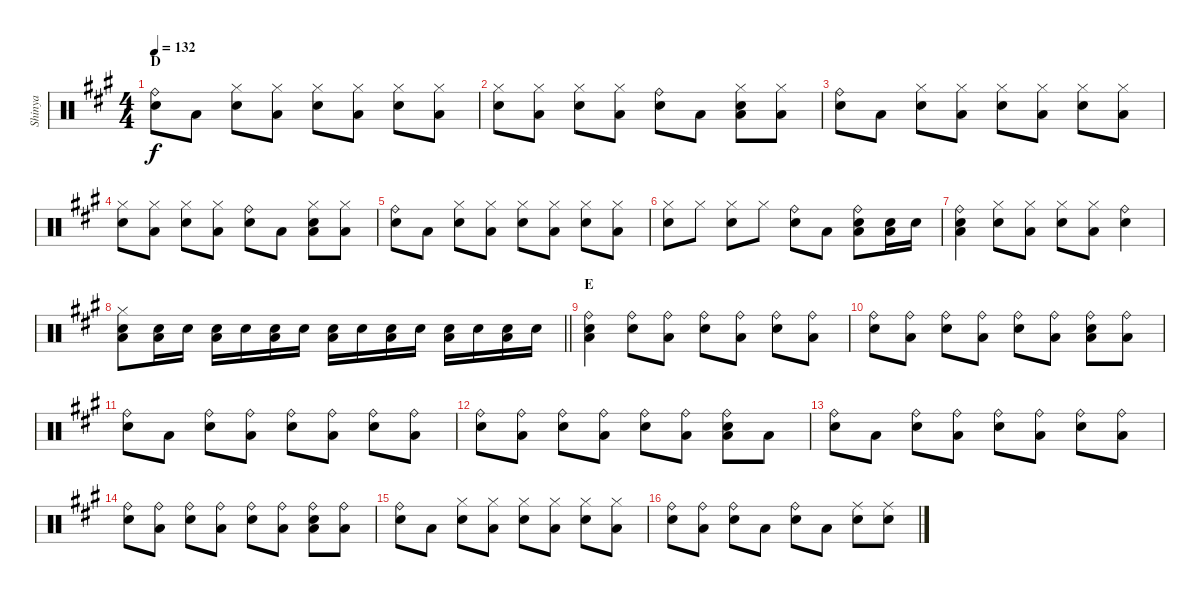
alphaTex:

\track ("Shinya" "Shinya") {instrument percussion}
\staff {score}
\articulation defaults
\ts (4 4)
\section ("" "D")
\tempo 132
\clef neutral
\ks a
("Ride (bell)" "Snare (hit) 2").8{dy f} "Low Floor Tom (hit)".8 ("Hi-Hat (closed)" "Snare (hit) 2").8 ("Low Floor Tom (hit)" "Hi-Hat (closed)").8 ("Hi-Hat (closed)" "Snare (hit) 2").8 ("Low Floor Tom (hit)" "Hi-Hat (closed)").8 ("Hi-Hat (closed)" "Snare (hit) 2").8 ("Low Floor Tom (hit)" "Hi-Hat (closed)").8 |
("Hi-Hat (closed)" "Snare (hit) 2").8 ("Low Floor Tom (hit)" "Hi-Hat (closed)").8 ("Hi-Hat (closed)" "Snare (hit) 2").8 ("Low Floor Tom (hit)" "Hi-Hat (closed)").8 ("Ride (bell)" "Snare (hit) 2").8 "Low Floor Tom (hit)".8 ("Low Floor Tom (hit)" "Hi-Hat (closed)" "Snare (hit) 2").8 ("Low Floor Tom (hit)" "Hi-Hat (closed)").8 |
("Ride (bell)" "Snare (hit) 2").8 "Low Floor Tom (hit)".8 ("Hi-Hat (closed)" "Snare (hit) 2").8 ("Low Floor Tom (hit)" "Hi-Hat (closed)").8 ("Hi-Hat (closed)" "Snare (hit) 2").8 ("Low Floor Tom (hit)" "Hi-Hat (closed)").8 ("Hi-Hat (closed)" "Snare (hit) 2").8 ("Low Floor Tom (hit)" "Hi-Hat (closed)").8 |
("Hi-Hat (closed)" "Snare (hit) 2").8 ("Low Floor Tom (hit)" "Hi-Hat (closed)").8 ("Hi-Hat (closed)" "Snare (hit) 2").8 ("Low Floor Tom (hit)" "Hi-Hat (closed)").8 ("Ride (bell)" "Snare (hit) 2").8 "Low Floor Tom (hit)".8 ("Low Floor Tom (hit)" "Hi-Hat (closed)" "Snare (hit) 2").8 ("Low Floor Tom (hit)" "Hi-Hat (closed)").8 |
("Ride (bell)" "Snare (hit) 2").8 "Low Floor Tom (hit)".8 ("Hi-Hat (closed)" "Snare (hit) 2").8 ("Low Floor Tom (hit)" "Hi-Hat (closed)").8 ("Hi-Hat (closed)" "Snare (hit) 2").8 ("Low Floor Tom (hit)" "Hi-Hat (closed)").8 ("Hi-Hat (closed)" "Snare (hit) 2").8 ("Low Floor Tom (hit)" "Hi-Hat (closed)").8 |
("Hi-Hat (closed)" "Snare (hit) 2").8 "Hi-Hat (closed)".8 ("Hi-Hat (closed)" "Snare (hit) 2").8 "Hi-Hat (closed)".8 ("Ride (bell)" "Snare (hit) 2").8 "Low Floor Tom (hit)".8 ("Low Floor Tom (hit)" "Ride (bell)" "Snare (hit) 2").8 ("Low Floor Tom (hit)" "Snare (hit) 2").16 "Snare (hit) 2".16 |
("Low Floor Tom (hit)" "Ride (bell)" "Snare (hit) 2").4 ("Hi-Hat (closed)" "Snare (hit) 2").8 ("Low Floor Tom (hit)" "Hi-Hat (closed)").8 ("Hi-Hat (closed)" "Snare (hit) 2").8 ("Low Floor Tom (hit)" "Hi-Hat (closed)").8 ("Ride (bell)" "Snare (hit) 2").4 |
\barLineRight lightlight
("Low Floor Tom (hit)" "Hi-Hat (closed)" "Snare (hit) 2").8 ("Low Floor Tom (hit)" "Snare (hit) 2").16 "Snare (hit) 2".16 ("Low Floor Tom (hit)" "Snare (hit) 2").16 "Snare (hit) 2".16 ("Low Floor Tom (hit)" "Snare (hit) 2").16 "Snare (hit) 2".16 ("Low Floor Tom (hit)" "Snare (hit) 2").16 "Snare (hit) 2".16 ("Low Floor Tom (hit)" "Snare (hit) 2").16 "Snare (hit) 2".16 ("Low Floor Tom (hit)" "Snare (hit) 2").16 "Snare (hit) 2".16 ("Low Floor Tom (hit)" "Snare (hit) 2").16 "Snare (hit) 2".16 |
\section ("" "E")
("Low Floor Tom (hit)" "Ride (bell)" "Snare (hit) 2").4 ("Ride (bell)" "Snare (hit) 2").8 ("Low Floor Tom (hit)" "Ride (bell)").8 ("Ride (bell)" "Snare (hit) 2").8 ("Low Floor Tom (hit)" "Ride (bell)").8 ("Ride (bell)" "Snare (hit) 2").8 ("Low Floor Tom (hit)" "Ride (bell)").8 |
("Ride (bell)" "Snare (hit) 2").8 ("Low Floor Tom (hit)" "Ride (bell)").8 ("Ride (bell)" "Snare (hit) 2").8 ("Low Floor Tom (hit)" "Ride (bell)").8 ("Ride (bell)" "Snare (hit) 2").8 ("Low Floor Tom (hit)" "Ride (bell)").8 ("Low Floor Tom (hit)" "Ride (bell)" "Snare (hit) 2").8 ("Low Floor Tom (hit)" "Ride (bell)").8 |
("Ride (bell)" "Snare (hit) 2").8 "Low Floor Tom (hit)".8 ("Ride (bell)" "Snare (hit) 2").8 ("Low Floor Tom (hit)" "Ride (bell)").8 ("Ride (bell)" "Snare (hit) 2").8 ("Low Floor Tom (hit)" "Ride (bell)").8 ("Ride (bell)" "Snare (hit) 2").8 ("Low Floor Tom (hit)" "Ride (bell)").8 |
("Ride (bell)" "Snare (hit) 2").8 ("Low Floor Tom (hit)" "Ride (bell)").8 ("Ride (bell)" "Snare (hit) 2").8 ("Low Floor Tom (hit)" "Ride (bell)").8 ("Ride (bell)" "Snare (hit) 2").8 ("Low Floor Tom (hit)" "Ride (bell)").8 ("Low Floor Tom (hit)" "Ride (bell)" "Snare (hit) 2").8 "Low Floor Tom (hit)".8 |
("Ride (bell)" "Snare (hit) 2").8 "Low Floor Tom (hit)".8 ("Ride (bell)" "Snare (hit) 2").8 ("Low Floor Tom (hit)" "Ride (bell)").8 ("Ride (bell)" "Snare (hit) 2").8 ("Low Floor Tom (hit)" "Ride (bell)").8 ("Ride (bell)" "Snare (hit) 2").8 ("Low Floor Tom (hit)" "Ride (bell)").8 |
("Ride (bell)" "Snare (hit) 2").8 ("Low Floor Tom (hit)" "Ride (bell)").8 ("Ride (bell)" "Snare (hit) 2").8 ("Low Floor Tom (hit)" "Ride (bell)").8 ("Ride (bell)" "Snare (hit) 2").8 ("Low Floor Tom (hit)" "Ride (bell)").8 ("Low Floor Tom (hit)" "Ride (bell)" "Snare (hit) 2").8 ("Low Floor Tom (hit)" "Ride (bell)").8 |
("Ride (bell)" "Snare (hit) 2").8 "Low Floor Tom (hit)".8 ("Hi-Hat (closed)" "Snare (hit) 2").8 ("Low Floor Tom (hit)" "Hi-Hat (closed)").8 ("Hi-Hat (closed)" "Snare (hit) 2").8 ("Low Floor Tom (hit)" "Hi-Hat (closed)").8 ("Hi-Hat (closed)" "Snare (hit) 2").8 ("Low Floor Tom (hit)" "Hi-Hat (closed)").8 |
("Ride (bell)" "Snare (hit) 2").8 ("Low Floor Tom (hit)" "Ride (bell)").8 ("Ride (bell)" "Snare (hit) 2").8 "Low Floor Tom (hit)".8 ("Ride (bell)" "Snare (hit) 2").8 "Low Floor Tom (hit)".8 ("Ride (middle)" "Snare (hit) 2").8 ("Ride (middle)" "Snare (hit) 2").8
